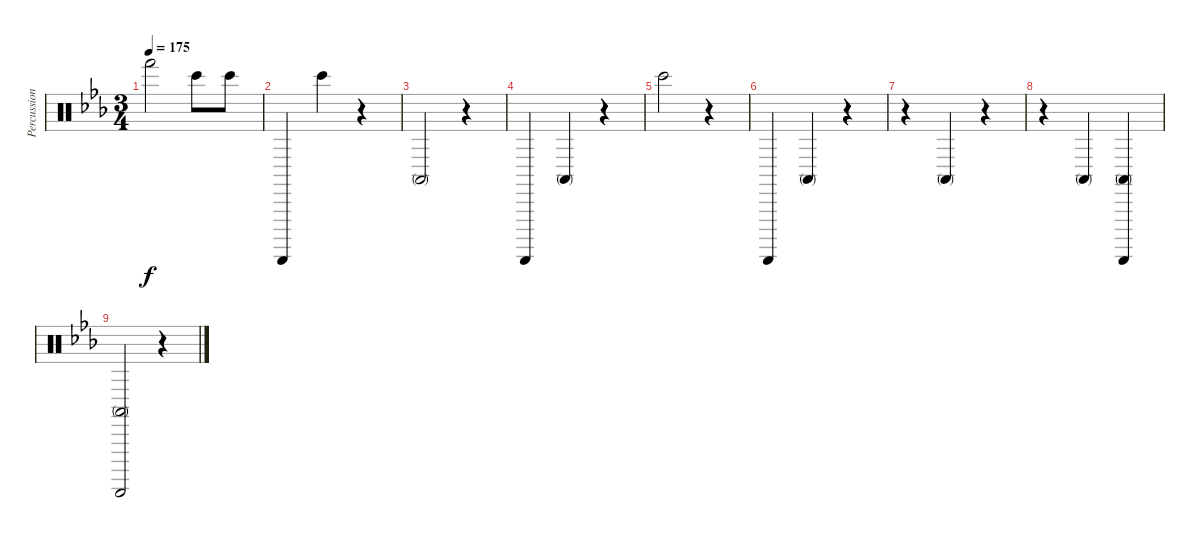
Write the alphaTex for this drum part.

\track ("Percussion" "Percussion") {instrument percussion}
\staff {score}
\articulation defaults
\ts (3 4)
\tempo 175
\clef neutral
\ks eb "Hand (hit)".2{dy f} "Bongo High (hit)".8 "Bongo High (hit)".8
|
"Guiro (scrap-return)".4 "Bongo High (hit)".4 r.4 |
"Conga high (mute)".2 r.4 |
"Guiro (scrap-return)".4 "Conga high (mute)".4 r.4 |
"Bongo High (hit)".2 r.4 |
"Guiro (scrap-return)".4 "Conga high (mute)".4 r.4 |
r.4 "Conga high (mute)".4 r.4 |
r.4 "Conga high (mute)".4 ("Guiro (scrap-return)" "Conga high (mute)").4 |
("Guiro (scrap-return)" "Conga high (mute)").2 r.4
